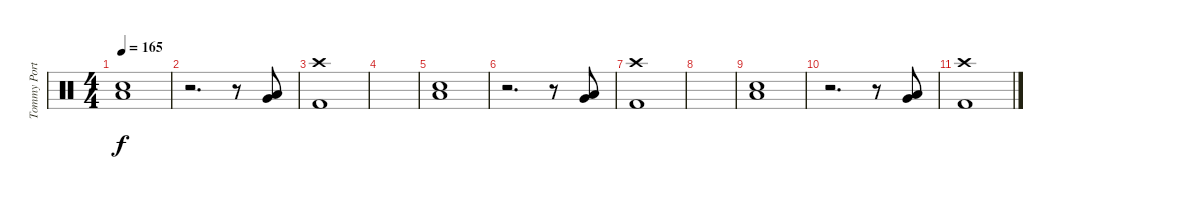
\track ("Tommy Portino" "Tommy Port") {instrument percussion}
\staff {score}
\articulation defaults
\ts (4 4)
\tempo 165
\clef neutral
\ks c
("Low Floor Tom (hit)" "Electric Snare (hit)").1{dy f} |
r.2{d} r.8 ("Very Low Tom (hit)" "Low Floor Tom (hit)").8 |
("Crash high (hit)" "Kick (hit) 2").1 |
|
("Low Floor Tom (hit)" "Electric Snare (hit)").1 |
r.2{d} r.8 ("Very Low Tom (hit)" "Low Floor Tom (hit)").8 |
("Crash high (hit)" "Kick (hit) 2").1 |
|
("Low Floor Tom (hit)" "Electric Snare (hit)").1 |
r.2{d} r.8 ("Very Low Tom (hit)" "Low Floor Tom (hit)").8 |
("Crash high (hit)" "Kick (hit) 2").1
